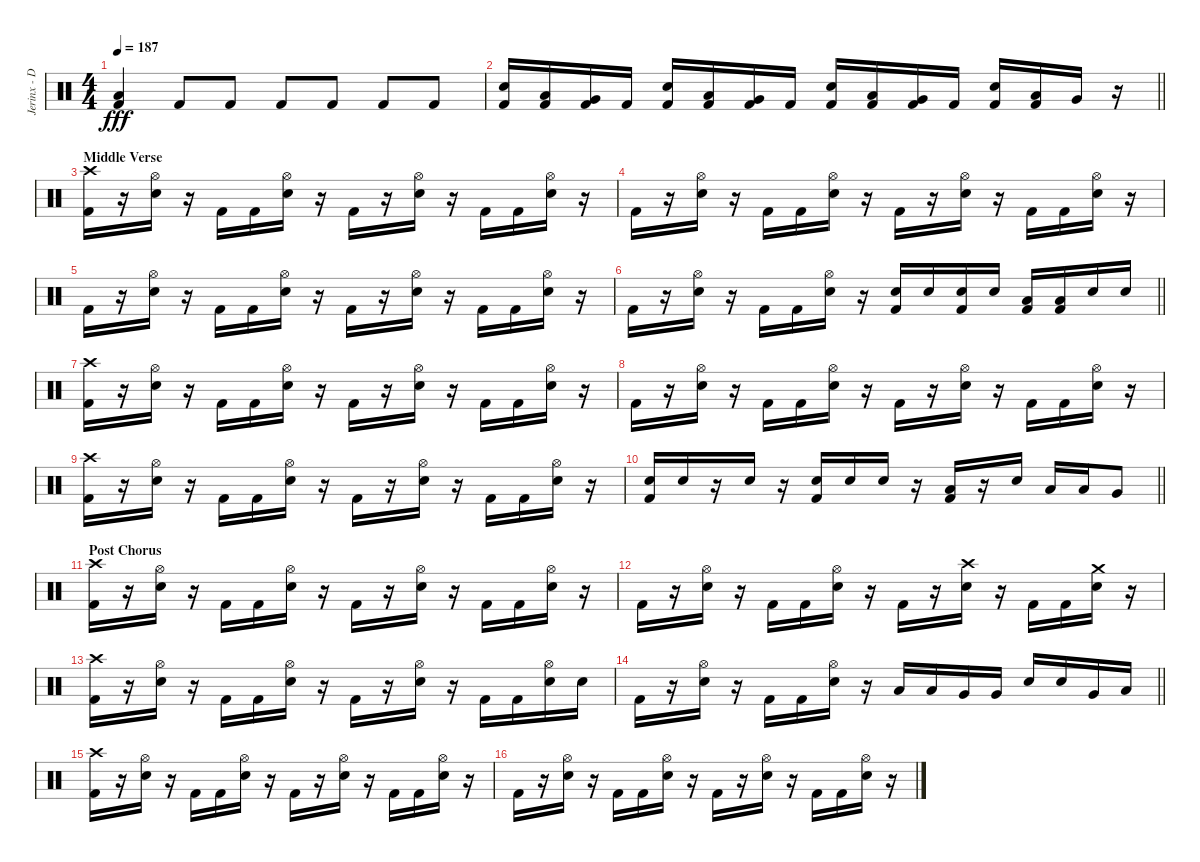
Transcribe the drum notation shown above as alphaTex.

\track ("Jerinx - Drum" "Jerinx - D") {instrument percussion}
\staff {score}
\articulation defaults
\ts (4 4)
\tempo 187
\clef neutral
\ks c
("Kick (hit) 2" "Low Floor Tom (hit)").4{dy fff} "Kick (hit) 2".8 "Kick (hit) 2".8 "Kick (hit) 2".8 "Kick (hit) 2".8 "Kick (hit) 2".8 "Kick (hit) 2".8 |
\barLineRight lightlight
("Snare (hit) 2" "Kick (hit) 2").16 ("Kick (hit) 2" "Low Tom (hit)").16 ("Kick (hit) 2" "Very Low Tom (hit)").16 "Kick (hit) 2".16 ("Snare (hit) 2" "Kick (hit) 2").16 ("Kick (hit) 2" "Low Tom (hit)").16 ("Kick (hit) 2" "Very Low Tom (hit)").16 "Kick (hit) 2".16 ("Snare (hit) 2" "Kick (hit) 2").16 ("Kick (hit) 2" "Low Tom (hit)").16 ("Kick (hit) 2" "Very Low Tom (hit)").16 "Kick (hit) 2".16 ("Snare (hit) 2" "Kick (hit) 2").16 ("Kick (hit) 2" "Low Tom (hit)").16 "Very Low Tom (hit)".16 r.16 |
\section ("" "Middle Verse")
("Kick (hit) 2" "Crash high (hit)").16 r.16 ("Hi-Hat (open)" "Snare (hit) 2").16 r.16 "Kick (hit) 2".16 "Kick (hit) 2".16 ("Hi-Hat (open)" "Snare (hit) 2").16 r.16 "Kick (hit) 2".16 r.16 ("Hi-Hat (open)" "Snare (hit) 2").16 r.16 "Kick (hit) 2".16 "Kick (hit) 2".16 ("Hi-Hat (open)" "Snare (hit) 2").16 r.16 |
"Kick (hit) 2".16 r.16 ("Hi-Hat (open)" "Snare (hit) 2").16 r.16 "Kick (hit) 2".16 "Kick (hit) 2".16 ("Hi-Hat (open)" "Snare (hit) 2").16 r.16 "Kick (hit) 2".16 r.16 ("Hi-Hat (open)" "Snare (hit) 2").16 r.16 "Kick (hit) 2".16 "Kick (hit) 2".16 ("Hi-Hat (open)" "Snare (hit) 2").16 r.16 |
"Kick (hit) 2".16 r.16 ("Hi-Hat (open)" "Snare (hit) 2").16 r.16 "Kick (hit) 2".16 "Kick (hit) 2".16 ("Hi-Hat (open)" "Snare (hit) 2").16 r.16 "Kick (hit) 2".16 r.16 ("Hi-Hat (open)" "Snare (hit) 2").16 r.16 "Kick (hit) 2".16 "Kick (hit) 2".16 ("Hi-Hat (open)" "Snare (hit) 2").16 r.16 |
\barLineRight lightlight "Kick (hit) 2".16
r.16 ("Hi-Hat (open)" "Snare (hit) 2").16 r.16 "Kick (hit) 2".16 "Kick (hit) 2".16 ("Hi-Hat (open)" "Snare (hit) 2").16 r.16 ("Snare (hit) 2" "Kick (hit) 2").16 "Snare (hit) 2".16 ("Snare (hit) 2" "Kick (hit) 2").16 "Snare (hit) 2".16 ("Kick (hit) 2" "Low Tom (hit)").16 ("Kick (hit) 2" "Low Tom (hit)").16 "Snare (hit) 2".16 "Snare (hit) 2".16 |
("Kick (hit) 2" "Crash high (hit)").16 r.16 ("Hi-Hat (open)" "Snare (hit) 2").16 r.16 "Kick (hit) 2".16 "Kick (hit) 2".16 ("Hi-Hat (open)" "Snare (hit) 2").16 r.16 "Kick (hit) 2".16 r.16 ("Hi-Hat (open)" "Snare (hit) 2").16 r.16 "Kick (hit) 2".16 "Kick (hit) 2".16 ("Hi-Hat (open)" "Snare (hit) 2").16 r.16 |
"Kick (hit) 2".16 r.16 ("Hi-Hat (open)" "Snare (hit) 2").16 r.16 "Kick (hit) 2".16 "Kick (hit) 2".16 ("Hi-Hat (open)" "Snare (hit) 2").16 r.16 "Kick (hit) 2".16 r.16 ("Hi-Hat (open)" "Snare (hit) 2").16 r.16 "Kick (hit) 2".16 "Kick (hit) 2".16 ("Hi-Hat (open)" "Snare (hit) 2").16 r.16 |
("Kick (hit) 2" "Crash high (hit)").16 r.16 ("Hi-Hat (open)" "Snare (hit) 2").16 r.16 "Kick (hit) 2".16 "Kick (hit) 2".16 ("Hi-Hat (open)" "Snare (hit) 2").16 r.16 "Kick (hit) 2".16 r.16 ("Hi-Hat (open)" "Snare (hit) 2").16 r.16 "Kick (hit) 2".16 "Kick (hit) 2".16 ("Hi-Hat (open)" "Snare (hit) 2").16 r.16 |
\barLineRight lightlight
("Snare (hit) 2" "Kick (hit) 2").16 "Snare (hit) 2".16 r.16 "Snare (hit) 2".16 r.16 ("Snare (hit) 2" "Kick (hit) 2").16 "Snare (hit) 2".16 "Snare (hit) 2".16 r.16 ("Kick (hit) 2" "Low Tom (hit)").16 r.16 "Snare (hit) 2".16 "Low Tom (hit)".16 "Low Tom (hit)".16 "Very Low Tom (hit)".8 |
\section ("" "Post Chorus")
("Kick (hit) 2" "Crash high (hit)").16 r.16 ("Hi-Hat (open)" "Snare (hit) 2").16 r.16 "Kick (hit) 2".16 "Kick (hit) 2".16 ("Hi-Hat (open)" "Snare (hit) 2").16 r.16 "Kick (hit) 2".16 r.16 ("Hi-Hat (open)" "Snare (hit) 2").16 r.16 "Kick (hit) 2".16 "Kick (hit) 2".16 ("Hi-Hat (open)" "Snare (hit) 2").16 r.16 |
"Kick (hit) 2".16 r.16 ("Hi-Hat (open)" "Snare (hit) 2").16 r.16 "Kick (hit) 2".16 "Kick (hit) 2".16 ("Hi-Hat (open)" "Snare (hit) 2").16 r.16 "Kick (hit) 2".16 r.16 ("Snare (hit) 2" "Crash high (hit)").16 r.16 "Kick (hit) 2".16 "Kick (hit) 2".16 ("Snare (hit) 2" "Crash medium (hit)").16 r.16 |
("Kick (hit) 2" "Crash high (hit)").16 r.16 ("Hi-Hat (open)" "Snare (hit) 2").16 r.16 "Kick (hit) 2".16 "Kick (hit) 2".16 ("Hi-Hat (open)" "Snare (hit) 2").16 r.16 "Kick (hit) 2".16 r.16 ("Hi-Hat (open)" "Snare (hit) 2").16 r.16 "Kick (hit) 2".16 "Kick (hit) 2".16 ("Hi-Hat (open)" "Snare (hit) 2").16 "Snare (hit) 2".16 |
\barLineRight lightlight "Kick (hit) 2".16
r.16 ("Hi-Hat (open)" "Snare (hit) 2").16 r.16 "Kick (hit) 2".16 "Kick (hit) 2".16 ("Hi-Hat (open)" "Snare (hit) 2").16 r.16 "Low Tom (hit)".16 "Low Tom (hit)".16 "Very Low Tom (hit)".16 "Very Low Tom (hit)".16 "Snare (hit) 2".16 "Snare (hit) 2".16 "Very Low Tom (hit)".16 "Low Floor Tom (hit)".16 |
("Kick (hit) 2" "Crash high (hit)").16 r.16 ("Hi-Hat (open)" "Snare (hit) 2").16 r.16 "Kick (hit) 2".16 "Kick (hit) 2".16 ("Hi-Hat (open)" "Snare (hit) 2").16 r.16 "Kick (hit) 2".16 r.16 ("Hi-Hat (open)" "Snare (hit) 2").16 r.16 "Kick (hit) 2".16 "Kick (hit) 2".16 ("Hi-Hat (open)" "Snare (hit) 2").16 r.16 |
"Kick (hit) 2".16 r.16 ("Hi-Hat (open)" "Snare (hit) 2").16 r.16 "Kick (hit) 2".16 "Kick (hit) 2".16 ("Hi-Hat (open)" "Snare (hit) 2").16 r.16 "Kick (hit) 2".16 r.16 ("Hi-Hat (open)" "Snare (hit) 2").16 r.16 "Kick (hit) 2".16 "Kick (hit) 2".16 ("Hi-Hat (open)" "Snare (hit) 2").16 r.16
